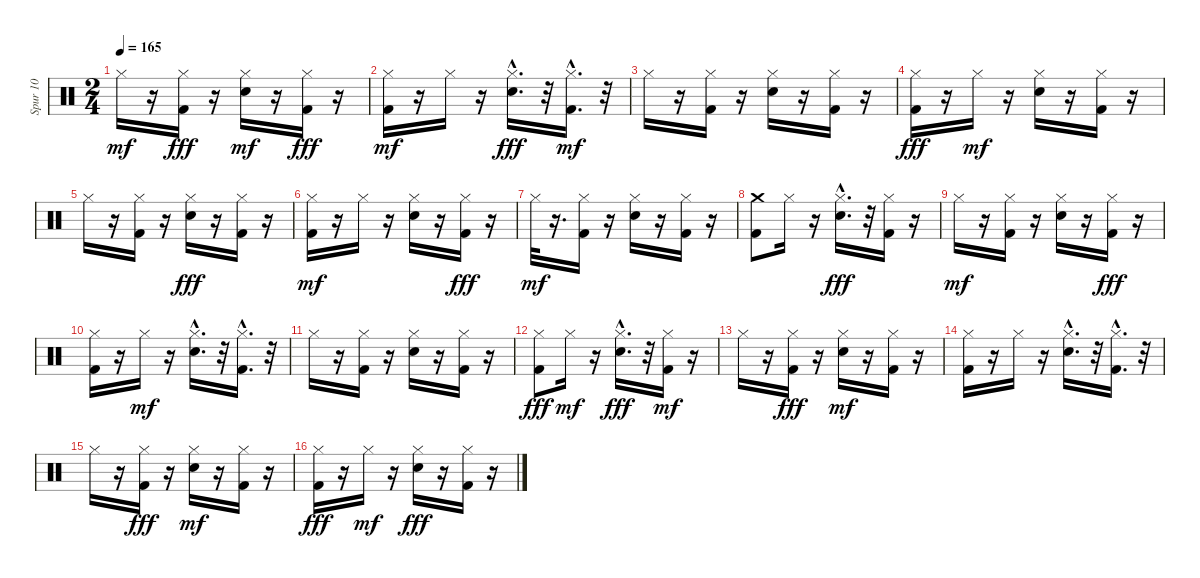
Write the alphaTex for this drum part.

\track ("Spur 10" "Spur 10") {instrument percussion}
\staff {score}
\articulation defaults
\ts (2 4)
\tempo 165
\clef neutral
\ks c "Hi-Hat (closed)".16{dy mf}
r.16 ("Hi-Hat (closed)" "Kick (hit) 2").16{dy fff} r.16 ("Electric Snare (hit)" "Hi-Hat (closed)").16{dy mf} r.16 ("Hi-Hat (closed)" "Kick (hit) 2").16{dy fff} r.16 |
("Kick (hit) 2" "Hi-Hat (closed)").16{dy mf} r.16 "Hi-Hat (closed)".16 r.16 ("Hi-Hat (closed)" "Electric Snare (hit)"{hac}).16{d dy fff} r.32 ("Kick (hit) 2"{hac} "Hi-Hat (closed)").16{d dy mf} r.32 |
"Hi-Hat (closed)".16 r.16 ("Kick (hit) 2" "Hi-Hat (closed)").16 r.16 ("Electric Snare (hit)" "Hi-Hat (closed)").16 r.16 ("Kick (hit) 2" "Hi-Hat (closed)").16 r.16 |
("Hi-Hat (closed)" "Kick (hit) 2").16{dy fff} r.16 "Hi-Hat (closed)".16{dy mf} r.16 ("Electric Snare (hit)" "Hi-Hat (closed)").16 r.16 ("Kick (hit) 2" "Hi-Hat (closed)").16 r.16 |
"Hi-Hat (closed)".16 r.16 ("Kick (hit) 2" "Hi-Hat (closed)").16 r.16 ("Hi-Hat (closed)" "Electric Snare (hit)").16{dy fff} r.16 ("Hi-Hat (closed)" "Kick (hit) 2").16 r.16 |
("Kick (hit) 2" "Hi-Hat (closed)").16{dy mf} r.16 "Hi-Hat (closed)".16 r.16 ("Electric Snare (hit)" "Hi-Hat (closed)").16 r.16 ("Hi-Hat (closed)" "Kick (hit) 2").16{dy fff} r.16 |
"Hi-Hat (closed)".32{dy mf} r.16{d} ("Kick (hit) 2" "Hi-Hat (closed)").16 r.16 ("Electric Snare (hit)" "Hi-Hat (closed)").16 r.16 ("Kick (hit) 2" "Hi-Hat (closed)").16 r.16 |
("Kick (hit) 2" "Crash medium (hit)").8 "Hi-Hat (closed)".16 r.16 ("Hi-Hat (closed)" "Electric Snare (hit)"{hac}).16{d dy fff} r.32 ("Hi-Hat (closed)" "Kick (hit) 2").16 r.16 |
"Hi-Hat (closed)".16{dy mf} r.16 ("Kick (hit) 2" "Hi-Hat (closed)").16 r.16 ("Electric Snare (hit)" "Hi-Hat (closed)").16 r.16 ("Hi-Hat (closed)" "Kick (hit) 2").16{dy fff} r.16 |
("Hi-Hat (closed)" "Kick (hit) 2").16 r.16 "Hi-Hat (closed)".16{dy mf} r.16 ("Electric Snare (hit)"{hac} "Hi-Hat (closed)").16{d} r.32 ("Kick (hit) 2"{hac} "Hi-Hat (closed)").16{d} r.32 |
"Hi-Hat (closed)".16 r.16 ("Kick (hit) 2" "Hi-Hat (closed)").16 r.16 ("Electric Snare (hit)" "Hi-Hat (closed)").16 r.16 ("Kick (hit) 2" "Hi-Hat (closed)").16 r.16 |
("Hi-Hat (closed)" "Kick (hit) 2").8{dy fff} "Hi-Hat (closed)".16{dy mf} r.16 ("Hi-Hat (closed)" "Electric Snare (hit)"{hac}).16{d dy fff} r.32 ("Kick (hit) 2" "Hi-Hat (closed)").16{dy mf} r.16 |
"Hi-Hat (closed)".16 r.16 ("Hi-Hat (closed)" "Kick (hit) 2").16{dy fff} r.16 ("Electric Snare (hit)" "Hi-Hat (closed)").16{dy mf} r.16 ("Kick (hit) 2" "Hi-Hat (closed)").16 r.16 |
("Kick (hit) 2" "Hi-Hat (closed)").16 r.16 "Hi-Hat (closed)".16 r.16 ("Electric Snare (hit)"{hac} "Hi-Hat (closed)").16{d} r.32 ("Kick (hit) 2"{hac} "Hi-Hat (closed)").16{d} r.32 |
"Hi-Hat (closed)".16 r.16 ("Hi-Hat (closed)" "Kick (hit) 2").16{dy fff} r.16 ("Electric Snare (hit)" "Hi-Hat (closed)").16{dy mf} r.16 ("Kick (hit) 2" "Hi-Hat (closed)").16 r.16 |
("Hi-Hat (closed)" "Kick (hit) 2").16{dy fff} r.16 "Hi-Hat (closed)".16{dy mf} r.16 ("Hi-Hat (closed)" "Electric Snare (hit)").16{dy fff} r.16 ("Hi-Hat (closed)" "Kick (hit) 2").16 r.16
